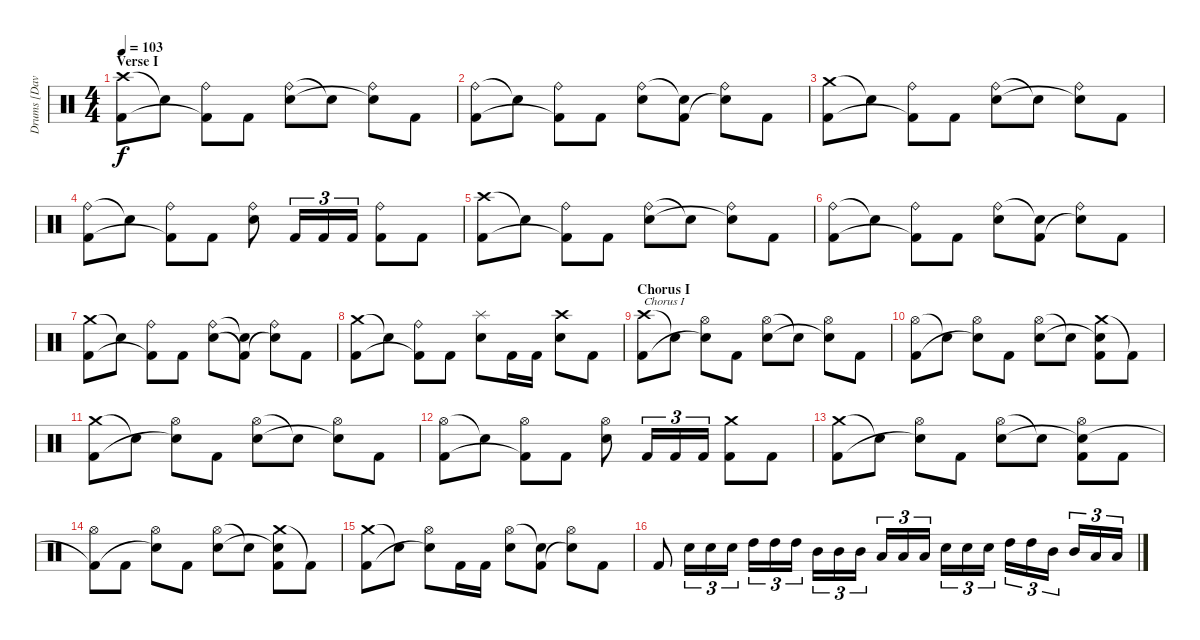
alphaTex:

\track ("Drums [Dave Culross]" "Drums [Dav") {instrument percussion}
\staff {score}
\articulation defaults
\ts (4 4)
\section ("" "Verse I")
\tempo 103
\clef neutral
\ks c
("Crash high (hit)" "Kick (hit) 2").8{dy f} "Snare (hit)"{t}.8 ("Ride (bell)" "Kick (hit) 2"{t}).8 "Kick (hit) 2".8 ("Ride (bell)" "Electric Snare (hit)").8 "Snare (hit)"{t}.8 ("Ride (bell)" "Snare (hit)"{t}).8 "Kick (hit) 2".8 |
("Ride (bell)" "Kick (hit) 2").8 "Snare (hit)"{t}.8 ("Ride (bell)" "Kick (hit) 2"{t}).8 "Kick (hit) 2".8 ("Ride (bell)" "Electric Snare (hit)").8 ("Snare (hit)"{t} "Kick (hit) 2").8 ("Ride (bell)" "Snare (hit)"{t}).8 "Kick (hit) 2".8 |
("Crash medium (hit)" "Kick (hit) 2").8 "Snare (hit)"{t}.8 ("Ride (bell)" "Kick (hit) 2"{t}).8 "Kick (hit) 2".8 ("Ride (bell)" "Electric Snare (hit)").8 "Snare (hit)"{t}.8 ("Ride (bell)" "Snare (hit)"{t}).8 "Kick (hit) 2".8 |
("Ride (bell)" "Kick (hit) 2").8 "Snare (hit)"{t}.8 ("Ride (bell)" "Kick (hit) 2"{t}).8 "Kick (hit) 2".8 ("Ride (bell)" "Electric Snare (hit)").8 "Kick (hit) 2".16{tu (3 2)} "Kick (hit) 2".16{tu (3 2)} "Kick (hit) 2".16{tu (3 2)} ("Ride (bell)" "Kick (hit) 2").8 "Kick (hit) 2".8 |
("Crash high (hit)" "Kick (hit) 2").8 "Snare (hit)"{t}.8 ("Ride (bell)" "Kick (hit) 2"{t}).8 "Kick (hit) 2".8 ("Ride (bell)" "Electric Snare (hit)").8 "Snare (hit)"{t}.8 ("Ride (bell)" "Snare (hit)"{t}).8 "Kick (hit) 2".8 |
("Ride (bell)" "Kick (hit) 2").8 "Snare (hit)"{t}.8 ("Ride (bell)" "Kick (hit) 2"{t}).8 "Kick (hit) 2".8 ("Ride (bell)" "Electric Snare (hit)").8 ("Snare (hit)"{t} "Kick (hit) 2").8 ("Ride (bell)" "Snare (hit)"{t}).8 "Kick (hit) 2".8 |
("Crash medium (hit)" "Kick (hit) 2").8 "Snare (hit)"{t}.8 ("Ride (bell)" "Kick (hit) 2"{t}).8 "Kick (hit) 2".8 ("Ride (bell)" "Electric Snare (hit)").8 ("Snare (hit)"{t} "Kick (hit) 2"{t}).8 ("Ride (bell)" "Snare (hit)"{t}).8 "Kick (hit) 2".8 |
("Crash medium (hit)" "Kick (hit) 2").8 "Snare (hit)"{t}.8 ("Ride (bell)" "Kick (hit) 2"{t}).8 "Kick (hit) 2".8 ("Splash (hit)" "Electric Snare (hit)").8 "Kick (hit) 2".16 "Kick (hit) 2".16 ("Crash high (hit)" "Electric Snare (hit)").8 "Kick (hit) 2".8 |
\section ("" "Chorus I")
("Crash high (hit)" "Kick (hit) 2").8{txt "Chorus I"} "Snare (hit)"{t}.8 ("Hi-Hat (open)" "Snare (hit)"{t}).8 "Kick (hit) 2".8 ("Hi-Hat (open)" "Electric Snare (hit)").8 "Snare (hit)"{t}.8 ("Hi-Hat (open)" "Snare (hit)"{t}).8 "Kick (hit) 2".8 |
("Hi-Hat (open)" "Kick (hit) 2").8 "Snare (hit)"{t}.8 ("Hi-Hat (open)" "Snare (hit)"{t}).8 "Kick (hit) 2".8 ("Hi-Hat (open)" "Electric Snare (hit)").8 "Snare (hit)"{t}.8 ("Crash medium (hit)" "Snare (hit)"{t} "Kick (hit) 2").8 "Kick (hit) 2"{t}.8 |
("Crash medium (hit)" "Kick (hit) 2").8 "Snare (hit)"{t}.8 ("Hi-Hat (open)" "Snare (hit)"{t}).8 "Kick (hit) 2".8 ("Hi-Hat (open)" "Electric Snare (hit)").8 "Snare (hit)"{t}.8 ("Hi-Hat (open)" "Snare (hit)"{t}).8 "Kick (hit) 2".8 |
("Hi-Hat (open)" "Kick (hit) 2").8 "Snare (hit)"{t}.8 ("Hi-Hat (open)" "Kick (hit) 2"{t}).8 "Kick (hit) 2".8 ("Hi-Hat (open)" "Electric Snare (hit)").8 "Kick (hit) 2".16{tu (3 2)} "Kick (hit) 2".16{tu (3 2)} "Kick (hit) 2".16{tu (3 2)} ("Crash medium (hit)" "Kick (hit) 2").8 "Kick (hit) 2".8 |
("Crash medium (hit)" "Kick (hit) 2").8 "Snare (hit)"{t}.8 ("Hi-Hat (open)" "Snare (hit)"{t}).8 "Kick (hit) 2".8 ("Hi-Hat (open)" "Electric Snare (hit)").8 "Snare (hit)"{t}.8 ("Hi-Hat (open)" "Snare (hit)"{t} "Kick (hit) 2").8 "Kick (hit) 2".8 |
("Hi-Hat (open)" "Kick (hit) 2"{t}).8 "Kick (hit) 2".8 ("Hi-Hat (open)" "Snare (hit)"{t}).8 "Kick (hit) 2".8 ("Hi-Hat (open)" "Electric Snare (hit)").8 "Snare (hit)"{t}.8 ("Crash medium (hit)" "Snare (hit)"{t} "Kick (hit) 2").8 "Kick (hit) 2"{t}.8 |
("Crash medium (hit)" "Kick (hit) 2").8 "Snare (hit)"{t}.8 ("Hi-Hat (open)" "Snare (hit)"{t}).8 "Kick (hit) 2".16 "Kick (hit) 2".16 ("Hi-Hat (open)" "Electric Snare (hit)").8 ("Snare (hit)"{t} "Kick (hit) 2").8 ("Hi-Hat (open)" "Snare (hit)"{t}).8 "Kick (hit) 2".8 |
"Kick (hit) 2".8 "Electric Snare (hit)".16{tu (3 2)} "Electric Snare (hit)".16{tu (3 2)} "Electric Snare (hit)".16{tu (3 2)} "High Tom (hit)".16{tu (3 2)} "High Tom (hit)".16{tu (3 2)} "High Tom (hit)".16{tu (3 2)} "Mid Tom (hit)".16{tu (3 2)} "Mid Tom (hit)".16{tu (3 2)} "Mid Tom (hit)".16{tu (3 2)} "Low Tom (hit)".16{tu (3 2)} "Low Tom (hit)".16{tu (3 2)} "Low Tom (hit)".16{tu (3 2)} "Electric Snare (hit)".16{tu (3 2)} "Electric Snare (hit)".16{tu (3 2)} "Electric Snare (hit)".16{tu (3 2)} "High Tom (hit)".16{tu (3 2)} "High Tom (hit)".16{tu (3 2)} "Mid Tom (hit)".16{tu (3 2)} "Mid Tom (hit)".16{tu (3 2)} "Low Tom (hit)".16{tu (3 2)} "Low Tom (hit)".16{tu (3 2)}
